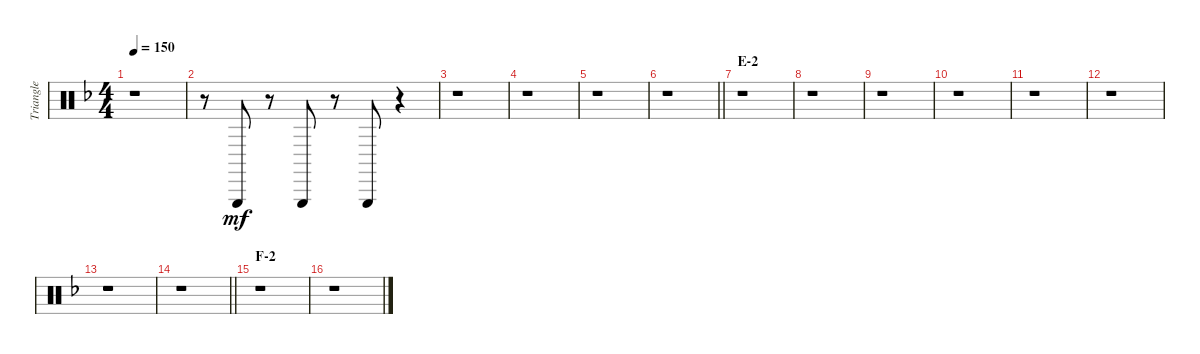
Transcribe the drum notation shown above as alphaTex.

\track ("Triangle" "Triangle") {instrument percussion}
\staff {score}
\articulation defaults
\ts (4 4)
\tempo 150
\clef neutral
\ks f
r.1{dy mf} |
r.8 "Triangle (hit)".8 r.8 "Triangle (hit)".8 r.8 "Triangle (hit)".8 r.4 |
r.1 |
r.1 |
r.1 |
\barLineRight lightlight
r.1 |
\section ("" "E-2")
r.1 |
r.1 |
r.1 |
r.1 |
r.1 |
r.1 |
r.1 |
\barLineRight lightlight
r.1 |
\section ("" "F-2")
r.1 |
r.1
